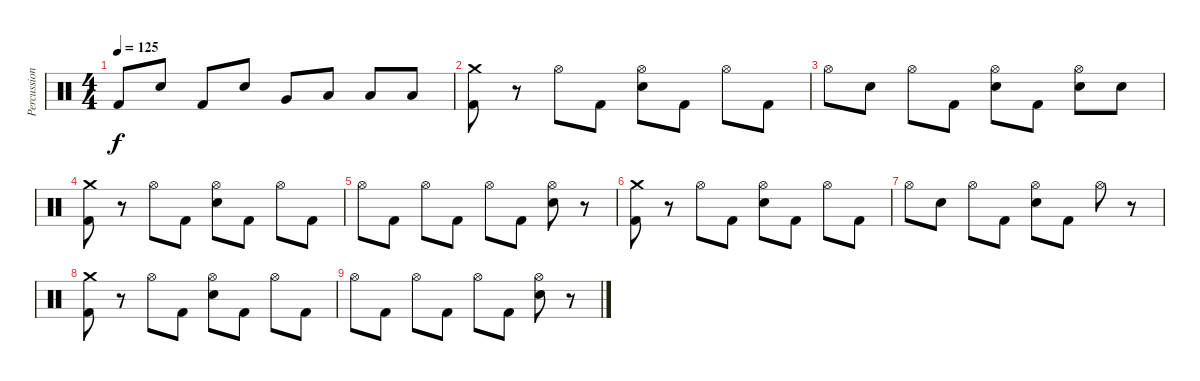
\track ("Percussion" "Percussion") {instrument percussion}
\staff {score}
\articulation defaults
\ts (4 4)
\tempo 125
\clef neutral
\ks c "Kick (hit) 2".8{dy f} "Electric Snare (hit)".8 "Kick (hit) 2".8 "Electric Snare (hit)".8 "Very Low Tom (hit)".8 "Low Tom (hit)".8 "Low Tom (hit)".8 "Low Tom (hit)".8
|
("Kick (hit) 2" "Crash medium (hit)").8 r.8 "Hi-Hat (open)".8 "Kick (hit) 2".8 ("Hi-Hat (open)" "Electric Snare (hit)").8 "Kick (hit) 2".8 "Hi-Hat (open)".8 "Kick (hit) 2".8 |
"Hi-Hat (open)".8 "Electric Snare (hit)".8 "Hi-Hat (open)".8 "Kick (hit) 2".8 ("Hi-Hat (open)" "Electric Snare (hit)").8 "Kick (hit) 2".8 ("Hi-Hat (open)" "Electric Snare (hit)").8 "Electric Snare (hit)".8 |
("Kick (hit) 2" "Crash medium (hit)").8 r.8 "Hi-Hat (open)".8 "Kick (hit) 2".8 ("Hi-Hat (open)" "Electric Snare (hit)").8 "Kick (hit) 2".8 "Hi-Hat (open)".8 "Kick (hit) 2".8 |
"Hi-Hat (open)".8 "Kick (hit) 2".8 "Hi-Hat (open)".8 "Kick (hit) 2".8 "Hi-Hat (open)".8 "Kick (hit) 2".8 ("Hi-Hat (open)" "Electric Snare (hit)").8 r.8 |
("Kick (hit) 2" "Crash medium (hit)").8 r.8 "Hi-Hat (open)".8 "Kick (hit) 2".8 ("Hi-Hat (open)" "Electric Snare (hit)").8 "Kick (hit) 2".8 "Hi-Hat (open)".8 "Kick (hit) 2".8 |
"Hi-Hat (open)".8{volume 0} "Electric Snare (hit)".8 "Hi-Hat (open)".8 "Kick (hit) 2".8 ("Hi-Hat (open)" "Electric Snare (hit)").8 "Kick (hit) 2".8 "Hi-Hat (open)".8 r.8 |
("Kick (hit) 2" "Crash medium (hit)").8 r.8 "Hi-Hat (open)".8 "Kick (hit) 2".8 ("Hi-Hat (open)" "Electric Snare (hit)").8 "Kick (hit) 2".8 "Hi-Hat (open)".8 "Kick (hit) 2".8 |
"Hi-Hat (open)".8 "Kick (hit) 2".8 "Hi-Hat (open)".8 "Kick (hit) 2".8 "Hi-Hat (open)".8 "Kick (hit) 2".8 ("Hi-Hat (open)" "Electric Snare (hit)").8 r.8
